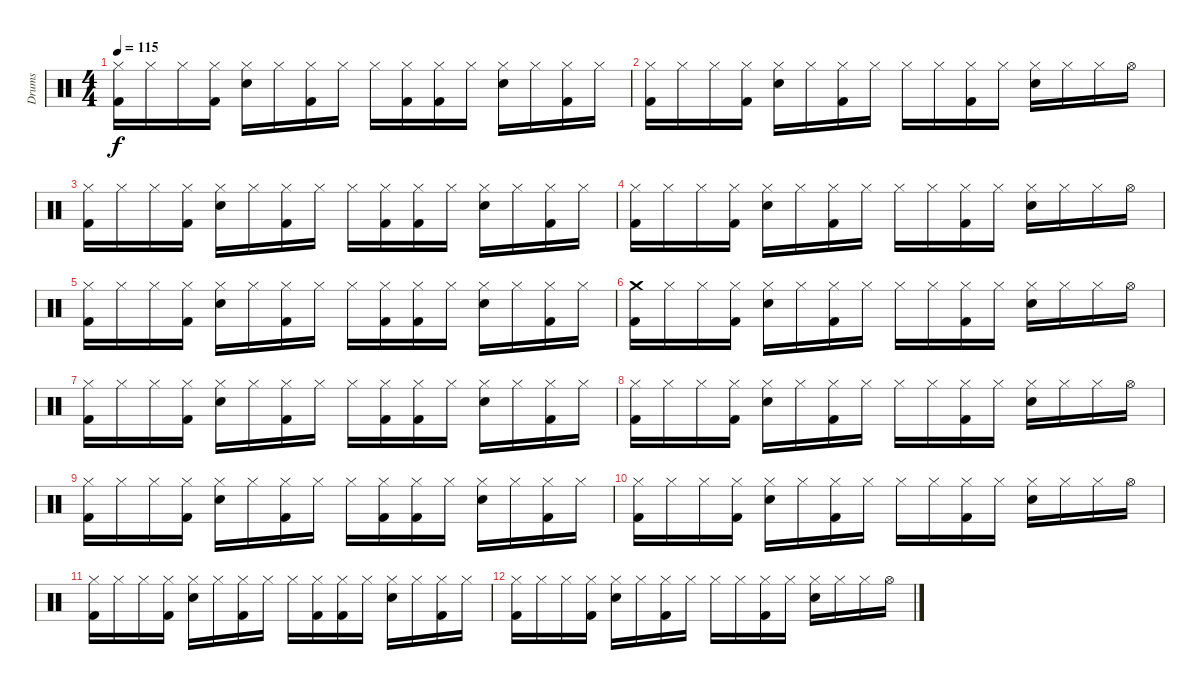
\track ("Drums" "Drums") {instrument percussion}
\staff {score}
\articulation defaults
\ts (4 4)
\tempo 115
\clef neutral
\ks c
("Hi-Hat (closed)" "Kick (hit) 2").16{dy f} "Hi-Hat (closed)".16 "Hi-Hat (closed)".16 ("Hi-Hat (closed)" "Kick (hit) 2").16 ("Hi-Hat (closed)" "Electric Snare (hit)").16 "Hi-Hat (closed)".16 ("Hi-Hat (closed)" "Kick (hit) 2").16 "Hi-Hat (closed)".16 "Hi-Hat (closed)".16 ("Hi-Hat (closed)" "Kick (hit) 2").16 ("Hi-Hat (closed)" "Kick (hit) 2").16 "Hi-Hat (closed)".16 ("Hi-Hat (closed)" "Electric Snare (hit)").16 "Hi-Hat (closed)".16 ("Hi-Hat (closed)" "Kick (hit) 2").16 "Hi-Hat (closed)".16 |
("Hi-Hat (closed)" "Kick (hit) 2").16 "Hi-Hat (closed)".16 "Hi-Hat (closed)".16 ("Hi-Hat (closed)" "Kick (hit) 2").16 ("Hi-Hat (closed)" "Electric Snare (hit)").16 "Hi-Hat (closed)".16 ("Hi-Hat (closed)" "Kick (hit) 2").16 "Hi-Hat (closed)".16 "Hi-Hat (closed)".16 "Hi-Hat (closed)".16 ("Hi-Hat (closed)" "Kick (hit) 2").16 "Hi-Hat (closed)".16 ("Hi-Hat (closed)" "Electric Snare (hit)").16 "Hi-Hat (closed)".16 "Hi-Hat (closed)".16 "Hi-Hat (open)".16 |
("Hi-Hat (closed)" "Kick (hit) 2").16 "Hi-Hat (closed)".16 "Hi-Hat (closed)".16 ("Hi-Hat (closed)" "Kick (hit) 2").16 ("Hi-Hat (closed)" "Electric Snare (hit)").16 "Hi-Hat (closed)".16 ("Hi-Hat (closed)" "Kick (hit) 2").16 "Hi-Hat (closed)".16 "Hi-Hat (closed)".16 ("Hi-Hat (closed)" "Kick (hit) 2").16 ("Hi-Hat (closed)" "Kick (hit) 2").16 "Hi-Hat (closed)".16 ("Hi-Hat (closed)" "Electric Snare (hit)").16 "Hi-Hat (closed)".16 ("Hi-Hat (closed)" "Kick (hit) 2").16 "Hi-Hat (closed)".16 |
("Hi-Hat (closed)" "Kick (hit) 2").16 "Hi-Hat (closed)".16 "Hi-Hat (closed)".16 ("Hi-Hat (closed)" "Kick (hit) 2").16 ("Hi-Hat (closed)" "Electric Snare (hit)").16 "Hi-Hat (closed)".16 ("Hi-Hat (closed)" "Kick (hit) 2").16 "Hi-Hat (closed)".16 "Hi-Hat (closed)".16 "Hi-Hat (closed)".16 ("Hi-Hat (closed)" "Kick (hit) 2").16 "Hi-Hat (closed)".16 ("Hi-Hat (closed)" "Electric Snare (hit)").16 "Hi-Hat (closed)".16 "Hi-Hat (closed)".16 "Hi-Hat (open)".16 |
("Hi-Hat (closed)" "Kick (hit) 2").16 "Hi-Hat (closed)".16 "Hi-Hat (closed)".16 ("Hi-Hat (closed)" "Kick (hit) 2").16 ("Hi-Hat (closed)" "Electric Snare (hit)").16 "Hi-Hat (closed)".16 ("Hi-Hat (closed)" "Kick (hit) 2").16 "Hi-Hat (closed)".16 "Hi-Hat (closed)".16 ("Hi-Hat (closed)" "Kick (hit) 2").16 ("Hi-Hat (closed)" "Kick (hit) 2").16 "Hi-Hat (closed)".16 ("Hi-Hat (closed)" "Electric Snare (hit)").16 "Hi-Hat (closed)".16 ("Hi-Hat (closed)" "Kick (hit) 2").16 "Hi-Hat (closed)".16 |
("Crash medium (hit)" "Kick (hit) 2").16 "Hi-Hat (closed)".16 "Hi-Hat (closed)".16 ("Hi-Hat (closed)" "Kick (hit) 2").16 ("Hi-Hat (closed)" "Electric Snare (hit)").16 "Hi-Hat (closed)".16 ("Hi-Hat (closed)" "Kick (hit) 2").16 "Hi-Hat (closed)".16 "Hi-Hat (closed)".16 "Hi-Hat (closed)".16 ("Hi-Hat (closed)" "Kick (hit) 2").16 "Hi-Hat (closed)".16 ("Hi-Hat (closed)" "Electric Snare (hit)").16 "Hi-Hat (closed)".16 "Hi-Hat (closed)".16 "Hi-Hat (open)".16 |
("Hi-Hat (closed)" "Kick (hit) 2").16 "Hi-Hat (closed)".16 "Hi-Hat (closed)".16 ("Hi-Hat (closed)" "Kick (hit) 2").16 ("Hi-Hat (closed)" "Electric Snare (hit)").16 "Hi-Hat (closed)".16 ("Hi-Hat (closed)" "Kick (hit) 2").16 "Hi-Hat (closed)".16 "Hi-Hat (closed)".16 ("Hi-Hat (closed)" "Kick (hit) 2").16 ("Hi-Hat (closed)" "Kick (hit) 2").16 "Hi-Hat (closed)".16 ("Hi-Hat (closed)" "Electric Snare (hit)").16 "Hi-Hat (closed)".16 ("Hi-Hat (closed)" "Kick (hit) 2").16 "Hi-Hat (closed)".16 |
("Hi-Hat (closed)" "Kick (hit) 2").16 "Hi-Hat (closed)".16 "Hi-Hat (closed)".16 ("Hi-Hat (closed)" "Kick (hit) 2").16 ("Hi-Hat (closed)" "Electric Snare (hit)").16 "Hi-Hat (closed)".16 ("Hi-Hat (closed)" "Kick (hit) 2").16 "Hi-Hat (closed)".16 "Hi-Hat (closed)".16 "Hi-Hat (closed)".16 ("Hi-Hat (closed)" "Kick (hit) 2").16 "Hi-Hat (closed)".16 ("Hi-Hat (closed)" "Electric Snare (hit)").16 "Hi-Hat (closed)".16 "Hi-Hat (closed)".16 "Hi-Hat (open)".16 |
("Hi-Hat (closed)" "Kick (hit) 2").16{volume 0} "Hi-Hat (closed)".16 "Hi-Hat (closed)".16 ("Hi-Hat (closed)" "Kick (hit) 2").16 ("Hi-Hat (closed)" "Electric Snare (hit)").16 "Hi-Hat (closed)".16 ("Hi-Hat (closed)" "Kick (hit) 2").16 "Hi-Hat (closed)".16 "Hi-Hat (closed)".16 ("Hi-Hat (closed)" "Kick (hit) 2").16 ("Hi-Hat (closed)" "Kick (hit) 2").16 "Hi-Hat (closed)".16 ("Hi-Hat (closed)" "Electric Snare (hit)").16 "Hi-Hat (closed)".16 ("Hi-Hat (closed)" "Kick (hit) 2").16 "Hi-Hat (closed)".16 |
("Hi-Hat (closed)" "Kick (hit) 2").16 "Hi-Hat (closed)".16 "Hi-Hat (closed)".16 ("Hi-Hat (closed)" "Kick (hit) 2").16 ("Hi-Hat (closed)" "Electric Snare (hit)").16 "Hi-Hat (closed)".16 ("Hi-Hat (closed)" "Kick (hit) 2").16 "Hi-Hat (closed)".16 "Hi-Hat (closed)".16 "Hi-Hat (closed)".16 ("Hi-Hat (closed)" "Kick (hit) 2").16 "Hi-Hat (closed)".16 ("Hi-Hat (closed)" "Electric Snare (hit)").16 "Hi-Hat (closed)".16 "Hi-Hat (closed)".16 "Hi-Hat (open)".16 |
("Hi-Hat (closed)" "Kick (hit) 2").16 "Hi-Hat (closed)".16 "Hi-Hat (closed)".16 ("Hi-Hat (closed)" "Kick (hit) 2").16 ("Hi-Hat (closed)" "Electric Snare (hit)").16 "Hi-Hat (closed)".16 ("Hi-Hat (closed)" "Kick (hit) 2").16 "Hi-Hat (closed)".16 "Hi-Hat (closed)".16 ("Hi-Hat (closed)" "Kick (hit) 2").16 ("Hi-Hat (closed)" "Kick (hit) 2").16 "Hi-Hat (closed)".16 ("Hi-Hat (closed)" "Electric Snare (hit)").16 "Hi-Hat (closed)".16 ("Hi-Hat (closed)" "Kick (hit) 2").16 "Hi-Hat (closed)".16 |
("Hi-Hat (closed)" "Kick (hit) 2").16 "Hi-Hat (closed)".16 "Hi-Hat (closed)".16 ("Hi-Hat (closed)" "Kick (hit) 2").16 ("Hi-Hat (closed)" "Electric Snare (hit)").16 "Hi-Hat (closed)".16 ("Hi-Hat (closed)" "Kick (hit) 2").16 "Hi-Hat (closed)".16 "Hi-Hat (closed)".16 "Hi-Hat (closed)".16 ("Hi-Hat (closed)" "Kick (hit) 2").16 "Hi-Hat (closed)".16 ("Hi-Hat (closed)" "Electric Snare (hit)").16 "Hi-Hat (closed)".16 "Hi-Hat (closed)".16 "Hi-Hat (open)".16
